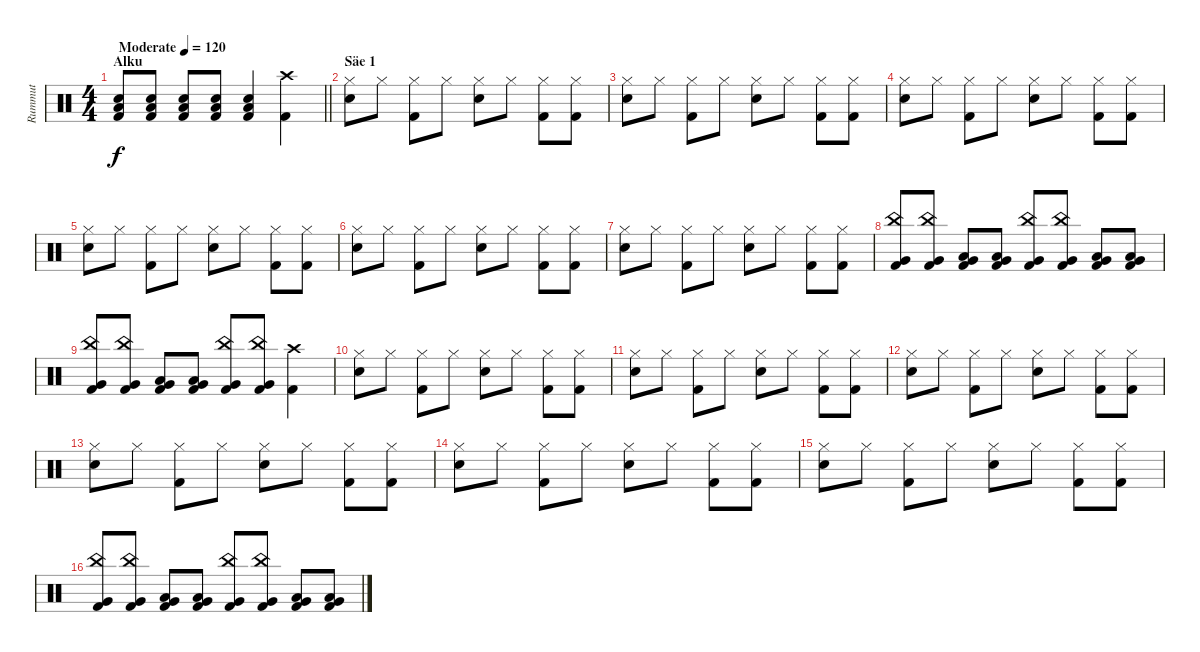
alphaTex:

\track ("Rummut" "Rummut") {instrument percussion}
\staff {score}
\articulation defaults
\ts (4 4)
\section ("" "Alku")
\tempo (120 "Moderate")
\clef neutral
\barLineRight lightlight
\ks c
("Low Floor Tom (hit)" "Electric Snare (hit)" "Kick (hit) 2").8{dy f} ("Low Floor Tom (hit)" "Electric Snare (hit)" "Kick (hit) 2").8 ("Low Floor Tom (hit)" "Electric Snare (hit)" "Kick (hit) 2").8 ("Low Floor Tom (hit)" "Electric Snare (hit)" "Kick (hit) 2").8 ("Low Floor Tom (hit)" "Electric Snare (hit)" "Kick (hit) 2").4 ("Crash high (hit)" "Kick (hit) 2").4 |
\section ("" "Säe 1")
("Hi-Hat (closed)" "Electric Snare (hit)").8 "Hi-Hat (closed)".8 ("Hi-Hat (closed)" "Kick (hit) 2").8 "Hi-Hat (closed)".8 ("Hi-Hat (closed)" "Electric Snare (hit)").8 "Hi-Hat (closed)".8 ("Hi-Hat (closed)" "Kick (hit) 2").8 ("Hi-Hat (closed)" "Kick (hit) 2").8 |
("Hi-Hat (closed)" "Electric Snare (hit)").8 "Hi-Hat (closed)".8 ("Hi-Hat (closed)" "Kick (hit) 2").8 "Hi-Hat (closed)".8 ("Hi-Hat (closed)" "Electric Snare (hit)").8 "Hi-Hat (closed)".8 ("Hi-Hat (closed)" "Kick (hit) 2").8 ("Hi-Hat (closed)" "Kick (hit) 2").8 |
("Hi-Hat (closed)" "Electric Snare (hit)").8 "Hi-Hat (closed)".8 ("Hi-Hat (closed)" "Kick (hit) 2").8 "Hi-Hat (closed)".8 ("Hi-Hat (closed)" "Electric Snare (hit)").8 "Hi-Hat (closed)".8 ("Hi-Hat (closed)" "Kick (hit) 2").8 ("Hi-Hat (closed)" "Kick (hit) 2").8 |
("Hi-Hat (closed)" "Electric Snare (hit)").8 "Hi-Hat (closed)".8 ("Hi-Hat (closed)" "Kick (hit) 2").8 "Hi-Hat (closed)".8 ("Hi-Hat (closed)" "Electric Snare (hit)").8 "Hi-Hat (closed)".8 ("Hi-Hat (closed)" "Kick (hit) 2").8 ("Hi-Hat (closed)" "Kick (hit) 2").8 |
("Hi-Hat (closed)" "Electric Snare (hit)").8 "Hi-Hat (closed)".8 ("Hi-Hat (closed)" "Kick (hit) 2").8 "Hi-Hat (closed)".8 ("Hi-Hat (closed)" "Electric Snare (hit)").8 "Hi-Hat (closed)".8 ("Hi-Hat (closed)" "Kick (hit) 2").8 ("Hi-Hat (closed)" "Kick (hit) 2").8 |
("Hi-Hat (closed)" "Electric Snare (hit)").8 "Hi-Hat (closed)".8 ("Hi-Hat (closed)" "Kick (hit) 2").8 "Hi-Hat (closed)".8 ("Hi-Hat (closed)" "Electric Snare (hit)").8 "Hi-Hat (closed)".8 ("Hi-Hat (closed)" "Kick (hit) 2").8 ("Hi-Hat (closed)" "Kick (hit) 2").8 |
("China (hit)" "Very Low Tom (hit)" "Kick (hit) 2").8 ("China (hit)" "Very Low Tom (hit)" "Kick (hit) 2").8 ("Low Floor Tom (hit)" "Very Low Tom (hit)" "Kick (hit) 2").8 ("Low Floor Tom (hit)" "Very Low Tom (hit)" "Kick (hit) 2").8 ("China (hit)" "Very Low Tom (hit)" "Kick (hit) 2").8 ("China (hit)" "Very Low Tom (hit)" "Kick (hit) 2").8 ("Low Floor Tom (hit)" "Very Low Tom (hit)" "Kick (hit) 2").8 ("Low Floor Tom (hit)" "Very Low Tom (hit)" "Kick (hit) 2").8 |
("China (hit)" "Very Low Tom (hit)" "Kick (hit) 2").8 ("China (hit)" "Very Low Tom (hit)" "Kick (hit) 2").8 ("Low Floor Tom (hit)" "Very Low Tom (hit)" "Kick (hit) 2").8 ("Low Floor Tom (hit)" "Very Low Tom (hit)" "Kick (hit) 2").8 ("China (hit)" "Very Low Tom (hit)" "Kick (hit) 2").8 ("China (hit)" "Very Low Tom (hit)" "Kick (hit) 2").8 ("Crash high (hit)" "Kick (hit) 2").4 |
("Hi-Hat (closed)" "Electric Snare (hit)").8 "Hi-Hat (closed)".8 ("Hi-Hat (closed)" "Kick (hit) 2").8 "Hi-Hat (closed)".8 ("Hi-Hat (closed)" "Electric Snare (hit)").8 "Hi-Hat (closed)".8 ("Hi-Hat (closed)" "Kick (hit) 2").8 ("Hi-Hat (closed)" "Kick (hit) 2").8 |
("Hi-Hat (closed)" "Electric Snare (hit)").8 "Hi-Hat (closed)".8 ("Hi-Hat (closed)" "Kick (hit) 2").8 "Hi-Hat (closed)".8 ("Hi-Hat (closed)" "Electric Snare (hit)").8 "Hi-Hat (closed)".8 ("Hi-Hat (closed)" "Kick (hit) 2").8 ("Hi-Hat (closed)" "Kick (hit) 2").8 |
("Hi-Hat (closed)" "Electric Snare (hit)").8 "Hi-Hat (closed)".8 ("Hi-Hat (closed)" "Kick (hit) 2").8 "Hi-Hat (closed)".8 ("Hi-Hat (closed)" "Electric Snare (hit)").8 "Hi-Hat (closed)".8 ("Hi-Hat (closed)" "Kick (hit) 2").8 ("Hi-Hat (closed)" "Kick (hit) 2").8 |
("Hi-Hat (closed)" "Electric Snare (hit)").8 "Hi-Hat (closed)".8 ("Hi-Hat (closed)" "Kick (hit) 2").8 "Hi-Hat (closed)".8 ("Hi-Hat (closed)" "Electric Snare (hit)").8 "Hi-Hat (closed)".8 ("Hi-Hat (closed)" "Kick (hit) 2").8 ("Hi-Hat (closed)" "Kick (hit) 2").8 |
("Hi-Hat (closed)" "Electric Snare (hit)").8 "Hi-Hat (closed)".8 ("Hi-Hat (closed)" "Kick (hit) 2").8 "Hi-Hat (closed)".8 ("Hi-Hat (closed)" "Electric Snare (hit)").8 "Hi-Hat (closed)".8 ("Hi-Hat (closed)" "Kick (hit) 2").8 ("Hi-Hat (closed)" "Kick (hit) 2").8 |
("Hi-Hat (closed)" "Electric Snare (hit)").8 "Hi-Hat (closed)".8 ("Hi-Hat (closed)" "Kick (hit) 2").8 "Hi-Hat (closed)".8 ("Hi-Hat (closed)" "Electric Snare (hit)").8 "Hi-Hat (closed)".8 ("Hi-Hat (closed)" "Kick (hit) 2").8 ("Hi-Hat (closed)" "Kick (hit) 2").8 |
("China (hit)" "Very Low Tom (hit)" "Kick (hit) 2").8 ("China (hit)" "Very Low Tom (hit)" "Kick (hit) 2").8 ("Low Floor Tom (hit)" "Very Low Tom (hit)" "Kick (hit) 2").8 ("Low Floor Tom (hit)" "Very Low Tom (hit)" "Kick (hit) 2").8 ("China (hit)" "Very Low Tom (hit)" "Kick (hit) 2").8 ("China (hit)" "Very Low Tom (hit)" "Kick (hit) 2").8 ("Low Floor Tom (hit)" "Very Low Tom (hit)" "Kick (hit) 2").8 ("Low Floor Tom (hit)" "Very Low Tom (hit)" "Kick (hit) 2").8
